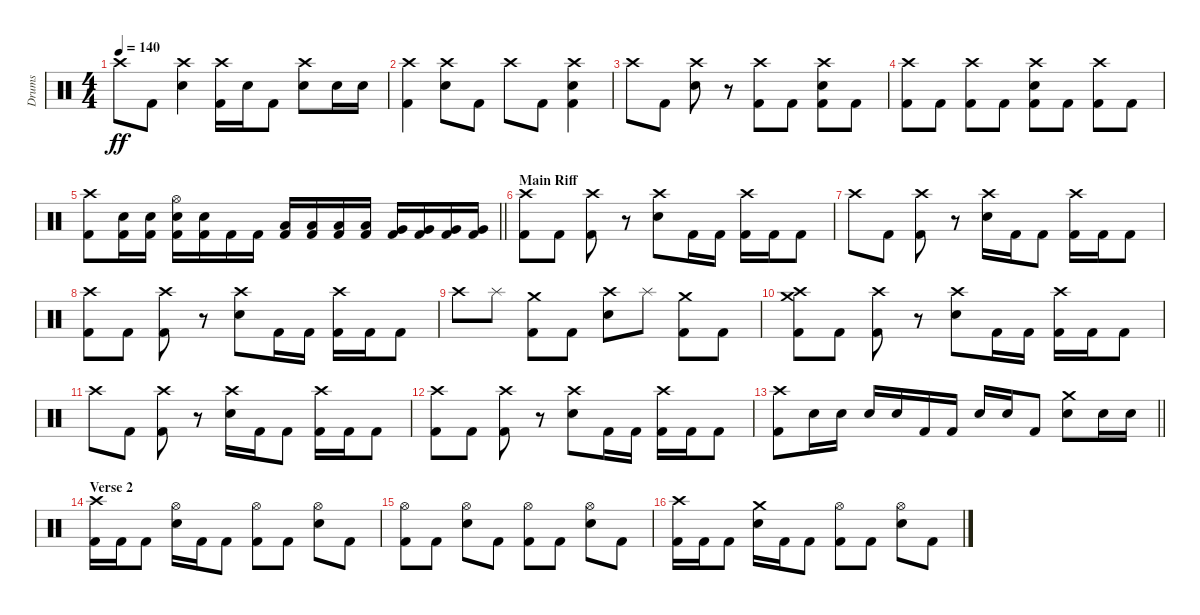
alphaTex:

\track ("Drums" "Drums") {instrument percussion}
\staff {score}
\articulation defaults
\ts (4 4)
\tempo 140
\clef neutral
\ks c "Crash high (hit)".8{dy ff} "Kick (hit) 2".8
("Crash high (hit)" "Electric Snare (hit)").4 ("Crash high (hit)" "Kick (hit) 2").16 "Electric Snare (hit)".16 "Kick (hit) 2".8 ("Crash high (hit)" "Electric Snare (hit)").8 "Electric Snare (hit)".16 "Electric Snare (hit)".16 |
("Crash high (hit)" "Kick (hit) 2").4 ("Crash high (hit)" "Electric Snare (hit)").8 "Kick (hit) 2".8 "Crash high (hit)".8 "Kick (hit) 2".8 ("Crash high (hit)" "Electric Snare (hit)" "Kick (hit) 2").4 |
"Crash high (hit)".8 "Kick (hit) 2".8 ("Crash high (hit)" "Electric Snare (hit)").8 r.8 ("Crash high (hit)" "Kick (hit) 2").8 "Kick (hit) 2".8 ("Crash high (hit)" "Electric Snare (hit)" "Kick (hit) 2").8 "Kick (hit) 2".8 |
("Crash high (hit)" "Kick (hit) 2").8 "Kick (hit) 2".8 ("Crash high (hit)" "Kick (hit) 2").8 "Kick (hit) 2".8 ("Crash high (hit)" "Electric Snare (hit)" "Kick (hit) 2").8 "Kick (hit) 2".8 ("Crash high (hit)" "Kick (hit) 2").8 "Kick (hit) 2".8 |
\barLineRight lightlight
("Crash high (hit)" "Kick (hit) 2").8 ("Electric Snare (hit)" "Kick (hit) 2").16 ("Electric Snare (hit)" "Kick (hit) 2").16 ("Hi-Hat (open)" "Electric Snare (hit)" "Kick (hit) 2").16 ("Electric Snare (hit)" "Kick (hit) 2").16 "Kick (hit) 2".16 "Kick (hit) 2".16 ("Low Tom (hit)" "Kick (hit) 2").16 ("Low Tom (hit)" "Kick (hit) 2").16 ("Low Tom (hit)" "Kick (hit) 2").16 ("Low Tom (hit)" "Kick (hit) 2").16 ("Very Low Tom (hit)" "Kick (hit) 2").16 ("Very Low Tom (hit)" "Kick (hit) 2").16 ("Very Low Tom (hit)" "Kick (hit) 2").16 ("Very Low Tom (hit)" "Kick (hit) 2").16 |
\section ("" "Main Riff")
("Crash high (hit)" "Kick (hit) 2").8 "Kick (hit) 2".8 ("Crash high (hit)" "Kick (hit) 2").8 r.8 ("Crash high (hit)" "Electric Snare (hit)").8 "Kick (hit) 2".16 "Kick (hit) 2".16 ("Crash high (hit)" "Kick (hit) 2").16 "Kick (hit) 2".16 "Kick (hit) 2".8 |
"Crash high (hit)".8 "Kick (hit) 2".8 ("Crash high (hit)" "Kick (hit) 2").8 r.8 ("Crash high (hit)" "Electric Snare (hit)").16 "Kick (hit) 2".16 "Kick (hit) 2".8 ("Crash high (hit)" "Kick (hit) 2").16 "Kick (hit) 2".16 "Kick (hit) 2".8 |
("Crash high (hit)" "Kick (hit) 2").8 "Kick (hit) 2".8 ("Crash high (hit)" "Kick (hit) 2").8 r.8 ("Crash high (hit)" "Electric Snare (hit)").8 "Kick (hit) 2".16 "Kick (hit) 2".16 ("Crash high (hit)" "Kick (hit) 2").16 "Kick (hit) 2".16 "Kick (hit) 2".8 |
"Crash high (hit)".8 "Splash (hit)".8 ("Crash medium (hit)" "Kick (hit) 2").8 "Kick (hit) 2".8 ("Crash high (hit)" "Electric Snare (hit)").8 "Splash (hit)".8 ("Crash medium (hit)" "Kick (hit) 2").8 "Kick (hit) 2".8 |
("Crash medium (hit)" "Crash high (hit)" "Kick (hit) 2").8 "Kick (hit) 2".8 ("Crash high (hit)" "Kick (hit) 2").8 r.8 ("Crash high (hit)" "Electric Snare (hit)").8 "Kick (hit) 2".16 "Kick (hit) 2".16 ("Crash high (hit)" "Kick (hit) 2").16 "Kick (hit) 2".16 "Kick (hit) 2".8 |
"Crash high (hit)".8 "Kick (hit) 2".8 ("Crash high (hit)" "Kick (hit) 2").8 r.8 ("Crash high (hit)" "Electric Snare (hit)").16 "Kick (hit) 2".16 "Kick (hit) 2".8 ("Crash high (hit)" "Kick (hit) 2").16 "Kick (hit) 2".16 "Kick (hit) 2".8 |
("Crash high (hit)" "Kick (hit) 2").8 "Kick (hit) 2".8 ("Crash high (hit)" "Kick (hit) 2").8 r.8 ("Crash high (hit)" "Electric Snare (hit)").8 "Kick (hit) 2".16 "Kick (hit) 2".16 ("Crash high (hit)" "Kick (hit) 2").16 "Kick (hit) 2".16 "Kick (hit) 2".8 |
\barLineRight lightlight
("Crash high (hit)" "Kick (hit) 2").8 "Electric Snare (hit)".16 "Electric Snare (hit)".16 "Electric Snare (hit)".16 "Electric Snare (hit)".16 "Kick (hit) 2".16 "Kick (hit) 2".16 "Electric Snare (hit)".16 "Electric Snare (hit)".16 "Kick (hit) 2".8 ("Crash medium (hit)" "Electric Snare (hit)").8 "Electric Snare (hit)".16 "Electric Snare (hit)".16 |
\section ("" "Verse 2")
("Crash high (hit)" "Kick (hit) 2").16 "Kick (hit) 2".16 "Kick (hit) 2".8 ("Hi-Hat (open)" "Electric Snare (hit)").16 "Kick (hit) 2".16 "Kick (hit) 2".8 ("Hi-Hat (open)" "Kick (hit) 2").8 "Kick (hit) 2".8 ("Hi-Hat (open)" "Electric Snare (hit)").8 "Kick (hit) 2".8 |
("Hi-Hat (open)" "Kick (hit) 2").8 "Kick (hit) 2".8 ("Hi-Hat (open)" "Electric Snare (hit)").8 "Kick (hit) 2".8 ("Hi-Hat (open)" "Kick (hit) 2").8 "Kick (hit) 2".8 ("Hi-Hat (open)" "Electric Snare (hit)").8 "Kick (hit) 2".8 |
("Crash high (hit)" "Kick (hit) 2").16 "Kick (hit) 2".16 "Kick (hit) 2".8 ("Crash medium (hit)" "Electric Snare (hit)").16 "Kick (hit) 2".16 "Kick (hit) 2".8 ("Hi-Hat (open)" "Kick (hit) 2").8 "Kick (hit) 2".8 ("Hi-Hat (open)" "Electric Snare (hit)").8 "Kick (hit) 2".8
